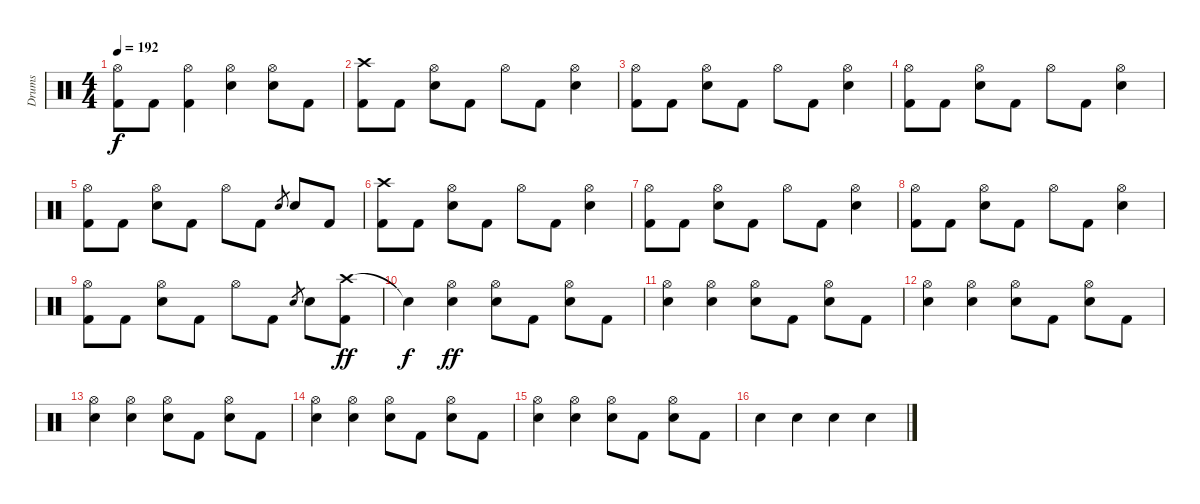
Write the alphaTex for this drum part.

\track ("Drums" "Drums") {instrument percussion}
\staff {score}
\articulation defaults
\ts (4 4)
\tempo 192
\clef neutral
\ks c
("Hi-Hat (open)" "Kick (hit) 2").8{dy f} "Kick (hit) 2".8 ("Hi-Hat (open)" "Kick (hit) 2").4 ("Hi-Hat (open)" "Snare (hit) 2").4 ("Hi-Hat (open)" "Snare (hit) 2").8 "Kick (hit) 2".8 |
("Crash high (hit)" "Kick (hit) 2").8 "Kick (hit) 2".8 ("Hi-Hat (open)" "Snare (hit) 2").8 "Kick (hit) 2".8 "Hi-Hat (open)".8 "Kick (hit) 2".8 ("Hi-Hat (open)" "Snare (hit) 2").4 |
("Hi-Hat (open)" "Kick (hit) 2").8 "Kick (hit) 2".8 ("Hi-Hat (open)" "Snare (hit) 2").8 "Kick (hit) 2".8 "Hi-Hat (open)".8 "Kick (hit) 2".8 ("Hi-Hat (open)" "Snare (hit) 2").4 |
("Hi-Hat (open)" "Kick (hit) 2").8 "Kick (hit) 2".8 ("Hi-Hat (open)" "Snare (hit) 2").8 "Kick (hit) 2".8 "Hi-Hat (open)".8 "Kick (hit) 2".8 ("Hi-Hat (open)" "Snare (hit) 2").4 |
("Hi-Hat (open)" "Kick (hit) 2").8 "Kick (hit) 2".8 ("Hi-Hat (open)" "Snare (hit) 2").8 "Kick (hit) 2".8 "Hi-Hat (open)".8 "Kick (hit) 2".8 "Snare (hit) 2".8{gr} "Snare (hit) 2".8 "Kick (hit) 2".8 |
("Crash high (hit)" "Kick (hit) 2").8 "Kick (hit) 2".8 ("Hi-Hat (open)" "Snare (hit) 2").8 "Kick (hit) 2".8 "Hi-Hat (open)".8 "Kick (hit) 2".8 ("Hi-Hat (open)" "Snare (hit) 2").4 |
("Hi-Hat (open)" "Kick (hit) 2").8 "Kick (hit) 2".8 ("Hi-Hat (open)" "Snare (hit) 2").8 "Kick (hit) 2".8 "Hi-Hat (open)".8 "Kick (hit) 2".8 ("Hi-Hat (open)" "Snare (hit) 2").4 |
("Hi-Hat (open)" "Kick (hit) 2").8 "Kick (hit) 2".8 ("Hi-Hat (open)" "Snare (hit) 2").8 "Kick (hit) 2".8 "Hi-Hat (open)".8 "Kick (hit) 2".8 ("Hi-Hat (open)" "Snare (hit) 2").4 |
("Hi-Hat (open)" "Kick (hit) 2").8 "Kick (hit) 2".8 ("Hi-Hat (open)" "Snare (hit) 2").8 "Kick (hit) 2".8 "Hi-Hat (open)".8 "Kick (hit) 2".8 "Snare (hit) 2".8{gr} "Snare (hit) 2".8 ("Crash high (hit)" "Kick (hit) 2").8{dy ff} |
"Snare (hit)"{t}.4{dy f} ("Hi-Hat (open)" "Snare (hit) 2").4{dy ff} ("Hi-Hat (open)" "Snare (hit) 2").8 "Kick (hit) 2".8 ("Hi-Hat (open)" "Snare (hit) 2").8 "Kick (hit) 2".8 |
("Hi-Hat (open)" "Snare (hit) 2").4 ("Hi-Hat (open)" "Snare (hit) 2").4 ("Hi-Hat (open)" "Snare (hit) 2").8 "Kick (hit) 2".8 ("Hi-Hat (open)" "Snare (hit) 2").8 "Kick (hit) 2".8 |
("Hi-Hat (open)" "Snare (hit) 2").4 ("Hi-Hat (open)" "Snare (hit) 2").4 ("Hi-Hat (open)" "Snare (hit) 2").8 "Kick (hit) 2".8 ("Hi-Hat (open)" "Snare (hit) 2").8 "Kick (hit) 2".8 |
("Hi-Hat (open)" "Snare (hit) 2").4 ("Hi-Hat (open)" "Snare (hit) 2").4 ("Hi-Hat (open)" "Snare (hit) 2").8 "Kick (hit) 2".8 ("Hi-Hat (open)" "Snare (hit) 2").8 "Kick (hit) 2".8 |
("Hi-Hat (open)" "Snare (hit) 2").4 ("Hi-Hat (open)" "Snare (hit) 2").4 ("Hi-Hat (open)" "Snare (hit) 2").8 "Kick (hit) 2".8 ("Hi-Hat (open)" "Snare (hit) 2").8 "Kick (hit) 2".8 |
("Hi-Hat (open)" "Snare (hit) 2").4 ("Hi-Hat (open)" "Snare (hit) 2").4 ("Hi-Hat (open)" "Snare (hit) 2").8 "Kick (hit) 2".8 ("Hi-Hat (open)" "Snare (hit) 2").8 "Kick (hit) 2".8 |
"Snare (hit) 2".4 "Snare (hit) 2".4 "Snare (hit) 2".4 "Snare (hit) 2".4
